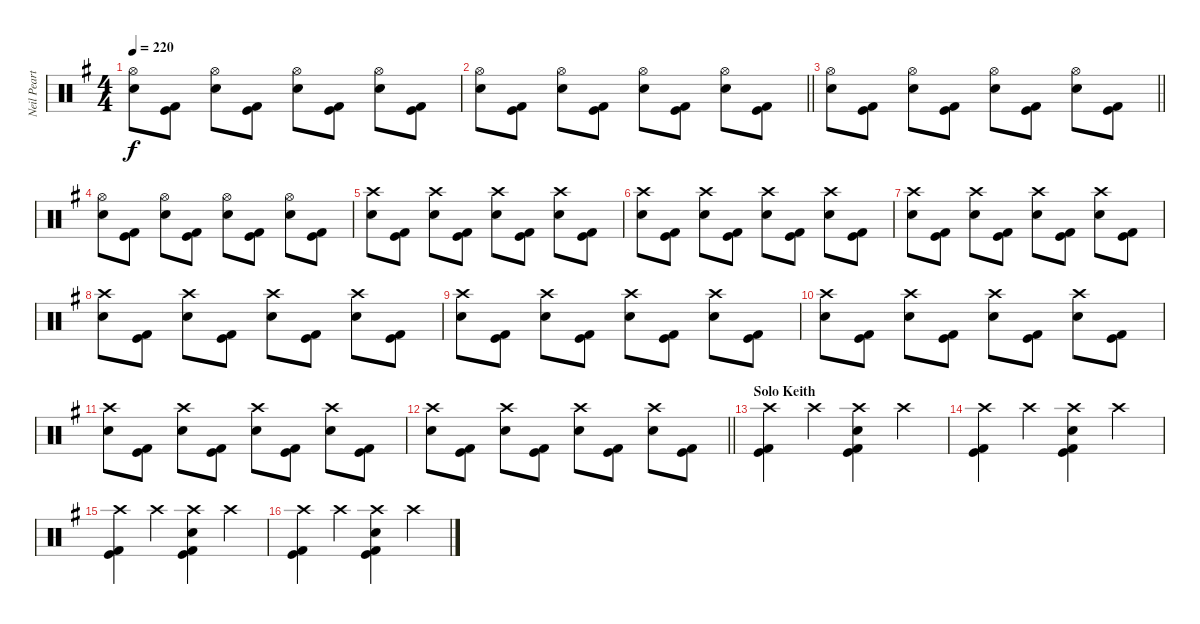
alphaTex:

\track ("Neil Peart" "Neil Peart") {instrument percussion}
\staff {score}
\articulation defaults
\ts (4 4)
\tempo 220
\clef neutral
\ks g
("Hi-Hat (open)" "Snare (hit) 2").8{dy f} ("Kick (hit) 2" "Kick (hit)").8 ("Hi-Hat (open)" "Snare (hit) 2").8 ("Kick (hit) 2" "Kick (hit)").8 ("Hi-Hat (open)" "Snare (hit) 2").8 ("Kick (hit) 2" "Kick (hit)").8 ("Hi-Hat (open)" "Snare (hit) 2").8 ("Kick (hit) 2" "Kick (hit)").8 |
\barLineRight lightlight
("Hi-Hat (open)" "Snare (hit) 2").8 ("Kick (hit) 2" "Kick (hit)").8 ("Hi-Hat (open)" "Snare (hit) 2").8 ("Kick (hit) 2" "Kick (hit)").8 ("Hi-Hat (open)" "Snare (hit) 2").8 ("Kick (hit) 2" "Kick (hit)").8 ("Hi-Hat (open)" "Snare (hit) 2").8 ("Kick (hit) 2" "Kick (hit)").8 |
\barLineRight lightlight
("Hi-Hat (open)" "Snare (hit) 2").8 ("Kick (hit) 2" "Kick (hit)").8 ("Hi-Hat (open)" "Snare (hit) 2").8 ("Kick (hit) 2" "Kick (hit)").8 ("Hi-Hat (open)" "Snare (hit) 2").8 ("Kick (hit) 2" "Kick (hit)").8 ("Hi-Hat (open)" "Snare (hit) 2").8 ("Kick (hit) 2" "Kick (hit)").8 |
("Hi-Hat (open)" "Snare (hit) 2").8 ("Kick (hit) 2" "Kick (hit)").8 ("Hi-Hat (open)" "Snare (hit) 2").8 ("Kick (hit) 2" "Kick (hit)").8 ("Hi-Hat (open)" "Snare (hit) 2").8 ("Kick (hit) 2" "Kick (hit)").8 ("Hi-Hat (open)" "Snare (hit) 2").8 ("Kick (hit) 2" "Kick (hit)").8 |
("Crash high (hit)" "Snare (hit) 2").8 ("Kick (hit) 2" "Kick (hit)").8 ("Crash high (hit)" "Snare (hit) 2").8 ("Kick (hit) 2" "Kick (hit)").8 ("Crash high (hit)" "Snare (hit) 2").8 ("Kick (hit) 2" "Kick (hit)").8 ("Crash high (hit)" "Snare (hit) 2").8 ("Kick (hit) 2" "Kick (hit)").8 |
("Crash high (hit)" "Snare (hit) 2").8 ("Kick (hit) 2" "Kick (hit)").8 ("Crash high (hit)" "Snare (hit) 2").8 ("Kick (hit) 2" "Kick (hit)").8 ("Crash high (hit)" "Snare (hit) 2").8 ("Kick (hit) 2" "Kick (hit)").8 ("Crash high (hit)" "Snare (hit) 2").8 ("Kick (hit) 2" "Kick (hit)").8 |
("Crash high (hit)" "Snare (hit) 2").8 ("Kick (hit) 2" "Kick (hit)").8 ("Crash high (hit)" "Snare (hit) 2").8 ("Kick (hit) 2" "Kick (hit)").8 ("Crash high (hit)" "Snare (hit) 2").8 ("Kick (hit) 2" "Kick (hit)").8 ("Crash high (hit)" "Snare (hit) 2").8 ("Kick (hit) 2" "Kick (hit)").8 |
("Crash high (hit)" "Snare (hit) 2").8 ("Kick (hit) 2" "Kick (hit)").8 ("Crash high (hit)" "Snare (hit) 2").8 ("Kick (hit) 2" "Kick (hit)").8 ("Crash high (hit)" "Snare (hit) 2").8 ("Kick (hit) 2" "Kick (hit)").8 ("Crash high (hit)" "Snare (hit) 2").8 ("Kick (hit) 2" "Kick (hit)").8 |
("Crash high (hit)" "Snare (hit) 2").8 ("Kick (hit) 2" "Kick (hit)").8 ("Crash high (hit)" "Snare (hit) 2").8 ("Kick (hit) 2" "Kick (hit)").8 ("Crash high (hit)" "Snare (hit) 2").8 ("Kick (hit) 2" "Kick (hit)").8 ("Crash high (hit)" "Snare (hit) 2").8 ("Kick (hit) 2" "Kick (hit)").8 |
("Crash high (hit)" "Snare (hit) 2").8 ("Kick (hit) 2" "Kick (hit)").8 ("Crash high (hit)" "Snare (hit) 2").8 ("Kick (hit) 2" "Kick (hit)").8 ("Crash high (hit)" "Snare (hit) 2").8 ("Kick (hit) 2" "Kick (hit)").8 ("Crash high (hit)" "Snare (hit) 2").8 ("Kick (hit) 2" "Kick (hit)").8 |
("Crash high (hit)" "Snare (hit) 2").8 ("Kick (hit) 2" "Kick (hit)").8 ("Crash high (hit)" "Snare (hit) 2").8 ("Kick (hit) 2" "Kick (hit)").8 ("Crash high (hit)" "Snare (hit) 2").8 ("Kick (hit) 2" "Kick (hit)").8 ("Crash high (hit)" "Snare (hit) 2").8 ("Kick (hit) 2" "Kick (hit)").8 |
\barLineRight lightlight
("Crash high (hit)" "Snare (hit) 2").8 ("Kick (hit) 2" "Kick (hit)").8 ("Crash high (hit)" "Snare (hit) 2").8 ("Kick (hit) 2" "Kick (hit)").8 ("Crash high (hit)" "Snare (hit) 2").8 ("Kick (hit) 2" "Kick (hit)").8 ("Crash high (hit)" "Snare (hit) 2").8 ("Kick (hit) 2" "Kick (hit)").8 |
\section ("" "Solo Keith")
("Crash high (hit)" "Kick (hit)" "Kick (hit) 2").4 "Crash high (hit)".4 ("Crash high (hit)" "Snare (hit) 2" "Kick (hit)" "Kick (hit) 2").4 "Crash high (hit)".4 |
("Crash high (hit)" "Kick (hit)" "Kick (hit) 2").4 "Crash high (hit)".4 ("Crash high (hit)" "Snare (hit) 2" "Kick (hit)" "Kick (hit) 2").4 "Crash high (hit)".4 |
("Crash high (hit)" "Kick (hit)" "Kick (hit) 2").4 "Crash high (hit)".4 ("Crash high (hit)" "Snare (hit) 2" "Kick (hit)" "Kick (hit) 2").4 "Crash high (hit)".4 |
("Crash high (hit)" "Kick (hit)" "Kick (hit) 2").4 "Crash high (hit)".4 ("Crash high (hit)" "Snare (hit) 2" "Kick (hit)" "Kick (hit) 2").4 "Crash high (hit)".4
